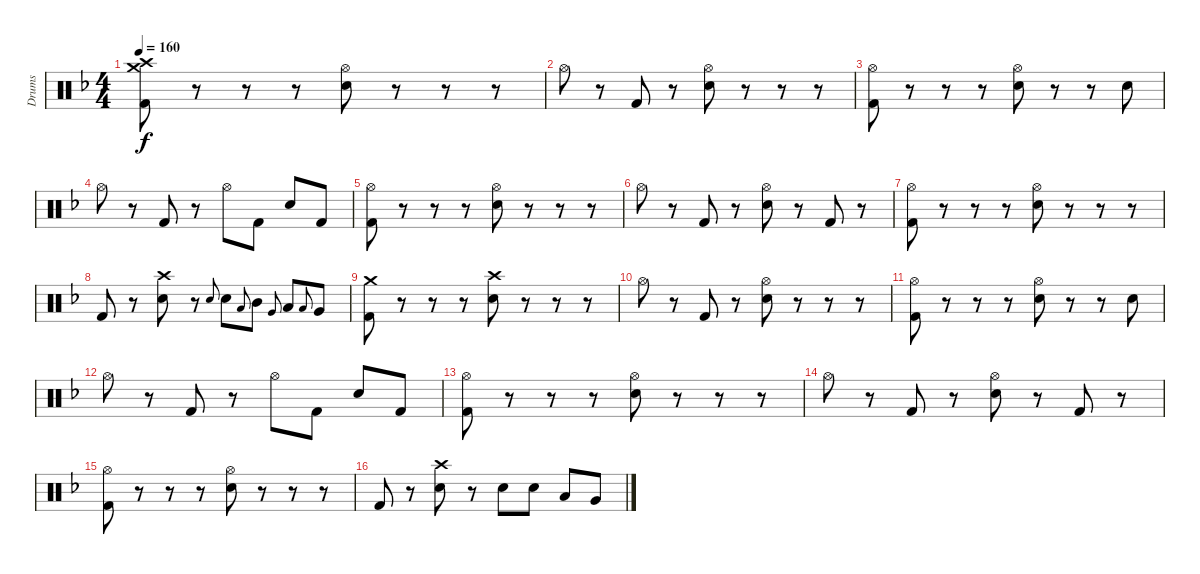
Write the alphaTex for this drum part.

\track ("Drums" "Drums") {instrument percussion}
\staff {score}
\articulation defaults
\ts (4 4)
\tempo 160
\clef neutral
\ks dminor
("Crash high (hit)" "Crash medium (hit)" "Kick (hit) 2").8{dy f} r.8 r.8 r.8 ("Hi-Hat (open)" "Electric Snare (hit)").8 r.8 r.8 r.8 |
"Hi-Hat (open)".8 r.8 "Kick (hit) 2".8 r.8 ("Hi-Hat (open)" "Electric Snare (hit)").8 r.8 r.8 r.8 |
("Hi-Hat (open)" "Kick (hit) 2").8 r.8 r.8 r.8 ("Hi-Hat (open)" "Electric Snare (hit)").8 r.8 r.8 "Electric Snare (hit)".8 |
"Hi-Hat (open)".8 r.8 "Kick (hit) 2".8 r.8 "Hi-Hat (open)".8 "Kick (hit) 2".8 "Electric Snare (hit)".8 "Kick (hit) 2".8 |
("Hi-Hat (open)" "Kick (hit) 2").8 r.8 r.8 r.8 ("Hi-Hat (open)" "Electric Snare (hit)").8 r.8 r.8 r.8 |
"Hi-Hat (open)".8 r.8 "Kick (hit) 2".8 r.8 ("Hi-Hat (open)" "Electric Snare (hit)").8 r.8 "Kick (hit) 2".8 r.8 |
("Hi-Hat (open)" "Kick (hit) 2").8 r.8 r.8 r.8 ("Hi-Hat (open)" "Electric Snare (hit)").8 r.8 r.8 r.8 |
"Kick (hit) 2".8 r.8 ("Crash high (hit)" "Electric Snare (hit)").8 r.8 "Electric Snare (hit)".8{gr onbeat} "Electric Snare (hit)".8 "Low Tom (hit)".8{gr onbeat} "Mid Tom (hit)".8 "Very Low Tom (hit)".8{gr onbeat} "Low Tom (hit)".8 "Low Floor Tom (hit)".8{gr onbeat} "Very Low Tom (hit)".8 |
("Crash medium (hit)" "Kick (hit) 2").8 r.8 r.8 r.8 ("Crash high (hit)" "Electric Snare (hit)").8 r.8 r.8 r.8 |
"Hi-Hat (open)".8 r.8 "Kick (hit) 2".8 r.8 ("Hi-Hat (open)" "Electric Snare (hit)").8 r.8 r.8 r.8 |
("Hi-Hat (open)" "Kick (hit) 2").8 r.8 r.8 r.8 ("Hi-Hat (open)" "Electric Snare (hit)").8 r.8 r.8 "Electric Snare (hit)".8 |
"Hi-Hat (open)".8 r.8 "Kick (hit) 2".8 r.8 "Hi-Hat (open)".8 "Kick (hit) 2".8 "Electric Snare (hit)".8 "Kick (hit) 2".8 |
("Hi-Hat (open)" "Kick (hit) 2").8 r.8 r.8 r.8 ("Hi-Hat (open)" "Electric Snare (hit)").8 r.8 r.8 r.8 |
"Hi-Hat (open)".8 r.8 "Kick (hit) 2".8 r.8 ("Hi-Hat (open)" "Electric Snare (hit)").8 r.8 "Kick (hit) 2".8 r.8 |
("Hi-Hat (open)" "Kick (hit) 2").8 r.8 r.8 r.8 ("Hi-Hat (open)" "Electric Snare (hit)").8 r.8 r.8 r.8 |
"Kick (hit) 2".8 r.8 ("Crash high (hit)" "Electric Snare (hit)").8 r.8 "Electric Snare (hit)".8 "Electric Snare (hit)".8 "Low Tom (hit)".8 "Very Low Tom (hit)".8
